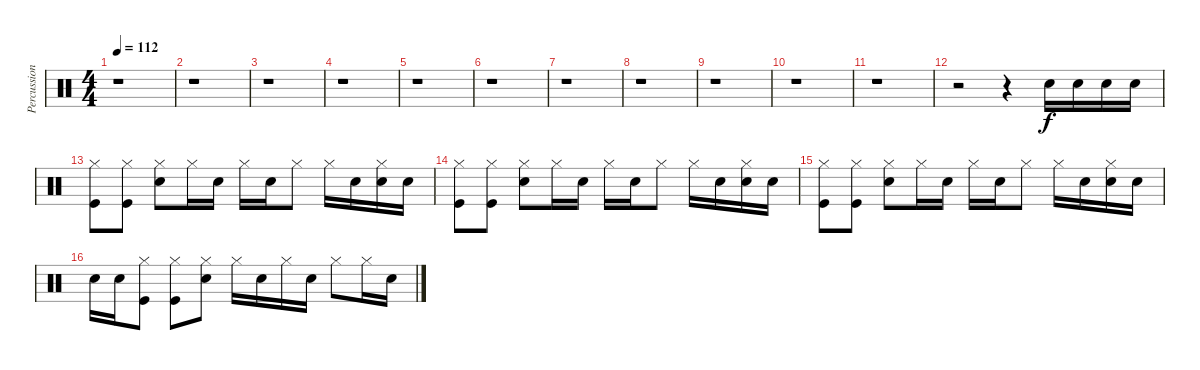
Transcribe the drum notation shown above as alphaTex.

\track ("Percussion 2" "Percussion") {instrument percussion}
\staff {score}
\articulation defaults
\ts (4 4)
\tempo 112
\clef neutral
\ks c
r.1{dy f} |
r.1 |
r.1 |
r.1 |
r.1 |
r.1 |
r.1 |
r.1 |
r.1 |
r.1 |
r.1 |
r.2 r.4 "Snare (hit) 2".16 "Snare (hit) 2".16 "Snare (hit) 2".16 "Snare (hit) 2".16 |
("Hi-Hat (closed)" "Kick (hit)").8 ("Hi-Hat (closed)" "Kick (hit)").8 ("Hi-Hat (closed)" "Snare (hit) 2").8 "Hi-Hat (closed)".16 "Snare (hit) 2".16 "Hi-Hat (closed)".16 "Snare (hit) 2".16 "Hi-Hat (closed)".8 "Hi-Hat (closed)".16 "Snare (hit) 2".16 ("Hi-Hat (closed)" "Snare (hit) 2").16 "Snare (hit) 2".16 |
("Hi-Hat (closed)" "Kick (hit)").8 ("Hi-Hat (closed)" "Kick (hit)").8 ("Hi-Hat (closed)" "Snare (hit) 2").8 "Hi-Hat (closed)".16 "Snare (hit) 2".16 "Hi-Hat (closed)".16 "Snare (hit) 2".16 "Hi-Hat (closed)".8 "Hi-Hat (closed)".16 "Snare (hit) 2".16 ("Hi-Hat (closed)" "Snare (hit) 2").16 "Snare (hit) 2".16 |
("Hi-Hat (closed)" "Kick (hit)").8 ("Hi-Hat (closed)" "Kick (hit)").8 ("Hi-Hat (closed)" "Snare (hit) 2").8 "Hi-Hat (closed)".16 "Snare (hit) 2".16 "Hi-Hat (closed)".16 "Snare (hit) 2".16 "Hi-Hat (closed)".8 "Hi-Hat (closed)".16 "Snare (hit) 2".16 ("Hi-Hat (closed)" "Snare (hit) 2").16 "Snare (hit) 2".16 |
"Snare (hit) 2".16 "Snare (hit) 2".16 ("Hi-Hat (closed)" "Kick (hit)").8 ("Hi-Hat (closed)" "Kick (hit)").8 ("Hi-Hat (closed)" "Snare (hit) 2").8 "Hi-Hat (closed)".16 "Snare (hit) 2".16 "Hi-Hat (closed)".16 "Snare (hit) 2".16 "Hi-Hat (closed)".8 "Hi-Hat (closed)".16 "Snare (hit) 2".16
